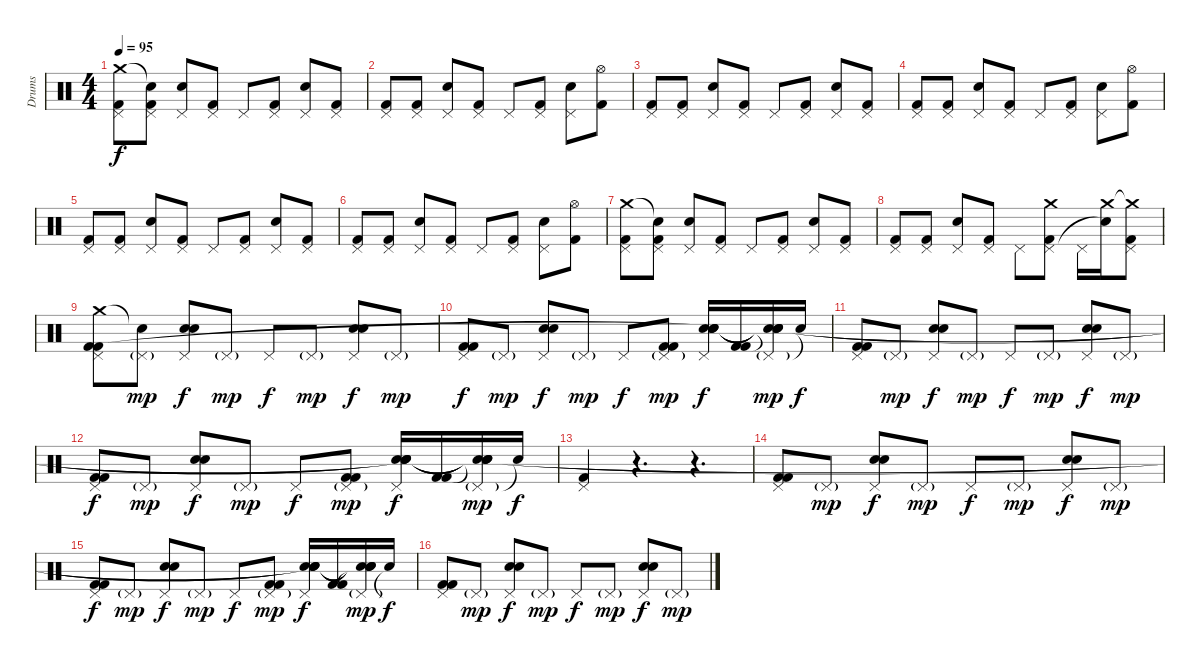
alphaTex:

\track ("Drums" "Drums") {instrument percussion}
\staff {score}
\articulation defaults
\ts (4 4)
\tempo 95
\clef neutral
\ks c
("Crash medium (hit)" "Pedal Hi-Hat (hit)" "Kick (hit) 2").8{dy f} ("Snare (hit)"{t} "Pedal Hi-Hat (hit)" "Kick (hit) 2").8 ("Pedal Hi-Hat (hit)" "Snare (hit) 2").8 ("Pedal Hi-Hat (hit)" "Kick (hit) 2").8 "Pedal Hi-Hat (hit)".8 ("Pedal Hi-Hat (hit)" "Kick (hit) 2").8 ("Pedal Hi-Hat (hit)" "Snare (hit) 2").8 ("Pedal Hi-Hat (hit)" "Kick (hit) 2").8 |
("Pedal Hi-Hat (hit)" "Kick (hit) 2").8 ("Pedal Hi-Hat (hit)" "Kick (hit) 2").8 ("Pedal Hi-Hat (hit)" "Snare (hit) 2").8 ("Pedal Hi-Hat (hit)" "Kick (hit) 2").8 "Pedal Hi-Hat (hit)".8 ("Pedal Hi-Hat (hit)" "Kick (hit) 2").8 ("Pedal Hi-Hat (hit)" "Snare (hit) 2").8 ("Hi-Hat (open)" "Kick (hit) 2").8 |
("Pedal Hi-Hat (hit)" "Kick (hit) 2").8 ("Pedal Hi-Hat (hit)" "Kick (hit) 2").8 ("Pedal Hi-Hat (hit)" "Snare (hit) 2").8 ("Pedal Hi-Hat (hit)" "Kick (hit) 2").8 "Pedal Hi-Hat (hit)".8 ("Pedal Hi-Hat (hit)" "Kick (hit) 2").8 ("Pedal Hi-Hat (hit)" "Snare (hit) 2").8 ("Pedal Hi-Hat (hit)" "Kick (hit) 2").8 |
("Pedal Hi-Hat (hit)" "Kick (hit) 2").8 ("Pedal Hi-Hat (hit)" "Kick (hit) 2").8 ("Pedal Hi-Hat (hit)" "Snare (hit) 2").8 ("Pedal Hi-Hat (hit)" "Kick (hit) 2").8 "Pedal Hi-Hat (hit)".8 ("Pedal Hi-Hat (hit)" "Kick (hit) 2").8 ("Pedal Hi-Hat (hit)" "Snare (hit) 2").8 ("Hi-Hat (open)" "Kick (hit) 2").8 |
("Pedal Hi-Hat (hit)" "Kick (hit) 2").8 ("Pedal Hi-Hat (hit)" "Kick (hit) 2").8 ("Pedal Hi-Hat (hit)" "Snare (hit) 2").8 ("Pedal Hi-Hat (hit)" "Kick (hit) 2").8 "Pedal Hi-Hat (hit)".8 ("Pedal Hi-Hat (hit)" "Kick (hit) 2").8 ("Pedal Hi-Hat (hit)" "Snare (hit) 2").8 ("Pedal Hi-Hat (hit)" "Kick (hit) 2").8 |
("Pedal Hi-Hat (hit)" "Kick (hit) 2").8 ("Pedal Hi-Hat (hit)" "Kick (hit) 2").8 ("Pedal Hi-Hat (hit)" "Snare (hit) 2").8 ("Pedal Hi-Hat (hit)" "Kick (hit) 2").8 "Pedal Hi-Hat (hit)".8 ("Pedal Hi-Hat (hit)" "Kick (hit) 2").8 ("Pedal Hi-Hat (hit)" "Snare (hit) 2").8 ("Hi-Hat (open)" "Kick (hit) 2").8 |
("Crash medium (hit)" "Pedal Hi-Hat (hit)" "Kick (hit) 2").8 ("Snare (hit)"{t} "Pedal Hi-Hat (hit)" "Kick (hit) 2").8 ("Pedal Hi-Hat (hit)" "Snare (hit) 2").8 ("Pedal Hi-Hat (hit)" "Kick (hit) 2").8 "Pedal Hi-Hat (hit)".8 ("Pedal Hi-Hat (hit)" "Kick (hit) 2").8 ("Pedal Hi-Hat (hit)" "Snare (hit) 2").8 ("Pedal Hi-Hat (hit)" "Kick (hit) 2").8 |
("Pedal Hi-Hat (hit)" "Kick (hit) 2").8 ("Pedal Hi-Hat (hit)" "Kick (hit) 2").8 ("Pedal Hi-Hat (hit)" "Snare (hit) 2").8 ("Pedal Hi-Hat (hit)" "Kick (hit) 2").8 "Pedal Hi-Hat (hit)".8 ("Crash medium (hit)" "Pedal Hi-Hat (hit)" "Kick (hit) 2").8 "Pedal Hi-Hat (hit)".16 ("Crash medium (hit)" "Snare (hit)"{t}).16 ("Crash medium (hit)"{t} "Pedal Hi-Hat (hit)" "Kick (hit) 2").8 |
("Crash medium (hit)" "Pedal Hi-Hat (hit)" "Kick (hit) 2" "Kick (hit) 2").8 ("Snare (hit)"{t} "Pedal Hi-Hat (hit)"{g}).8{dy mp} ("Pedal Hi-Hat (hit)" "Electric Snare (hit)" "Electric Snare (hit)").8{dy f} "Pedal Hi-Hat (hit)"{g}.8{dy mp} "Pedal Hi-Hat (hit)".8{dy f} "Pedal Hi-Hat (hit)"{g}.8{dy mp} ("Pedal Hi-Hat (hit)" "Electric Snare (hit)" "Electric Snare (hit)").8{dy f} "Pedal Hi-Hat (hit)"{g}.8{dy mp} |
("Pedal Hi-Hat (hit)" "Kick (hit) 2" "Kick (hit) 2").8{dy f} "Pedal Hi-Hat (hit)"{g}.8{dy mp} ("Pedal Hi-Hat (hit)" "Electric Snare (hit)" "Electric Snare (hit)").8{dy f} "Pedal Hi-Hat (hit)"{g}.8{dy mp} "Pedal Hi-Hat (hit)".8{dy f} ("Pedal Hi-Hat (hit)"{g} "Kick (hit) 2" "Kick (hit) 2").8{dy mp} ("Pedal Hi-Hat (hit)" "Electric Snare (hit)" "Electric Snare (hit)" "Snare (hit)"{t} "Snare (hit)").16{dy f} ("Kick (hit) 2" "Kick (hit) 2").16 ("Pedal Hi-Hat (hit)"{g} "Snare (hit)"{t} "Snare (hit)"{t} "Snare (hit)"{t} "Snare (hit)"{t}).16{dy mp} "Snare (hit)"{t}.16{dy f} |
("Pedal Hi-Hat (hit)" "Kick (hit) 2" "Kick (hit) 2").8 "Pedal Hi-Hat (hit)"{g}.8{dy mp} ("Pedal Hi-Hat (hit)" "Electric Snare (hit)" "Electric Snare (hit)").8{dy f} "Pedal Hi-Hat (hit)"{g}.8{dy mp} "Pedal Hi-Hat (hit)".8{dy f} "Pedal Hi-Hat (hit)"{g}.8{dy mp} ("Pedal Hi-Hat (hit)" "Electric Snare (hit)" "Electric Snare (hit)").8{dy f} "Pedal Hi-Hat (hit)"{g}.8{dy mp} |
("Pedal Hi-Hat (hit)" "Kick (hit) 2" "Kick (hit) 2").8{dy f} "Pedal Hi-Hat (hit)"{g}.8{dy mp} ("Pedal Hi-Hat (hit)" "Electric Snare (hit)" "Electric Snare (hit)").8{dy f} "Pedal Hi-Hat (hit)"{g}.8{dy mp} "Pedal Hi-Hat (hit)".8{dy f} ("Pedal Hi-Hat (hit)"{g} "Kick (hit) 2" "Kick (hit) 2").8{dy mp} ("Pedal Hi-Hat (hit)" "Electric Snare (hit)" "Electric Snare (hit)" "Snare (hit)"{t} "Snare (hit)"{t}).16{dy f} ("Kick (hit) 2" "Kick (hit) 2").16 ("Pedal Hi-Hat (hit)"{g} "Snare (hit)"{t} "Snare (hit)"{t} "Snare (hit)"{t} "Snare (hit)"{t}).16{dy mp} "Snare (hit)"{t}.16{dy f} |
("Pedal Hi-Hat (hit)" "Kick (hit) 2").4 r.4{d} r.4{d} |
("Pedal Hi-Hat (hit)" "Kick (hit) 2" "Kick (hit) 2").8 "Pedal Hi-Hat (hit)"{g}.8{dy mp} ("Pedal Hi-Hat (hit)" "Electric Snare (hit)" "Electric Snare (hit)").8{dy f} "Pedal Hi-Hat (hit)"{g}.8{dy mp} "Pedal Hi-Hat (hit)".8{dy f} "Pedal Hi-Hat (hit)"{g}.8{dy mp} ("Pedal Hi-Hat (hit)" "Electric Snare (hit)" "Electric Snare (hit)").8{dy f} "Pedal Hi-Hat (hit)"{g}.8{dy mp} |
("Pedal Hi-Hat (hit)" "Kick (hit) 2" "Kick (hit) 2").8{dy f} "Pedal Hi-Hat (hit)"{g}.8{dy mp} ("Pedal Hi-Hat (hit)" "Electric Snare (hit)" "Electric Snare (hit)").8{dy f} "Pedal Hi-Hat (hit)"{g}.8{dy mp} "Pedal Hi-Hat (hit)".8{dy f} ("Pedal Hi-Hat (hit)"{g} "Kick (hit) 2" "Kick (hit) 2").8{dy mp} ("Pedal Hi-Hat (hit)" "Electric Snare (hit)" "Electric Snare (hit)" "Snare (hit)"{t} "Snare (hit)"{t}).16{dy f} ("Kick (hit) 2" "Kick (hit) 2").16 ("Pedal Hi-Hat (hit)"{g} "Snare (hit)"{t} "Snare (hit)"{t} "Snare (hit)"{t} "Snare (hit)"{t}).16{dy mp} "Snare (hit)"{t}.16{dy f} |
("Pedal Hi-Hat (hit)" "Kick (hit) 2" "Kick (hit) 2").8 "Pedal Hi-Hat (hit)"{g}.8{dy mp} ("Pedal Hi-Hat (hit)" "Electric Snare (hit)" "Electric Snare (hit)").8{dy f} "Pedal Hi-Hat (hit)"{g}.8{dy mp} "Pedal Hi-Hat (hit)".8{dy f} "Pedal Hi-Hat (hit)"{g}.8{dy mp} ("Pedal Hi-Hat (hit)" "Electric Snare (hit)" "Electric Snare (hit)").8{dy f} "Pedal Hi-Hat (hit)"{g}.8{dy mp}
